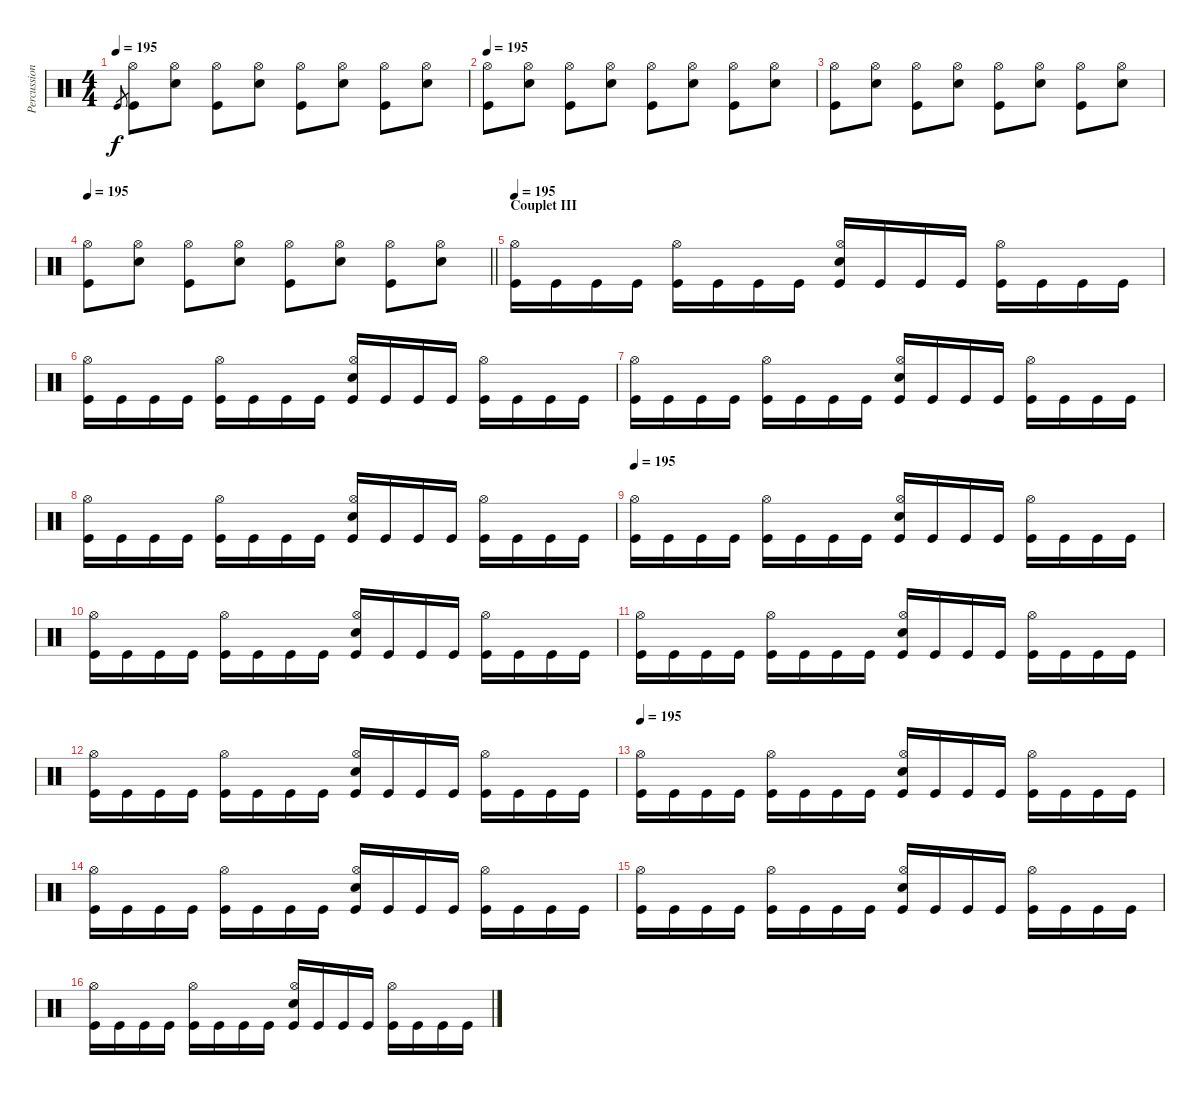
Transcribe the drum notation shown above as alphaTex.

\track ("Percussion" "Percussion") {instrument percussion}
\staff {score}
\articulation defaults
\ts (4 4)
\tempo 195
\clef neutral
\ks c "Kick (hit)".8{gr dy f}
("Hi-Hat (open)" "Kick (hit)").8 ("Hi-Hat (open)" "Electric Snare (hit)").8 ("Hi-Hat (open)" "Kick (hit)").8 ("Hi-Hat (open)" "Electric Snare (hit)").8 ("Hi-Hat (open)" "Kick (hit)").8 ("Hi-Hat (open)" "Electric Snare (hit)").8 ("Hi-Hat (open)" "Kick (hit)").8 ("Hi-Hat (open)" "Electric Snare (hit)").8 |
\tempo 195
("Hi-Hat (open)" "Kick (hit)").8 ("Hi-Hat (open)" "Electric Snare (hit)").8 ("Hi-Hat (open)" "Kick (hit)").8 ("Hi-Hat (open)" "Electric Snare (hit)").8 ("Hi-Hat (open)" "Kick (hit)").8 ("Hi-Hat (open)" "Electric Snare (hit)").8 ("Hi-Hat (open)" "Kick (hit)").8 ("Hi-Hat (open)" "Electric Snare (hit)").8 |
("Hi-Hat (open)" "Kick (hit)").8 ("Hi-Hat (open)" "Electric Snare (hit)").8 ("Hi-Hat (open)" "Kick (hit)").8 ("Hi-Hat (open)" "Electric Snare (hit)").8 ("Hi-Hat (open)" "Kick (hit)").8 ("Hi-Hat (open)" "Electric Snare (hit)").8 ("Hi-Hat (open)" "Kick (hit)").8 ("Hi-Hat (open)" "Electric Snare (hit)").8 |
\tempo 195
\barLineRight lightlight
("Hi-Hat (open)" "Kick (hit)").8 ("Hi-Hat (open)" "Electric Snare (hit)").8 ("Hi-Hat (open)" "Kick (hit)").8 ("Hi-Hat (open)" "Electric Snare (hit)").8 ("Hi-Hat (open)" "Kick (hit)").8 ("Hi-Hat (open)" "Electric Snare (hit)").8 ("Hi-Hat (open)" "Kick (hit)").8 ("Hi-Hat (open)" "Electric Snare (hit)").8 |
\section ("" "Couplet III")
\tempo 195
("Hi-Hat (open)" "Kick (hit)").16 "Kick (hit)".16 "Kick (hit)".16 "Kick (hit)".16 ("Hi-Hat (open)" "Kick (hit)").16 "Kick (hit)".16 "Kick (hit)".16 "Kick (hit)".16 ("Hi-Hat (open)" "Electric Snare (hit)" "Kick (hit)").16 "Kick (hit)".16 "Kick (hit)".16 "Kick (hit)".16 ("Hi-Hat (open)" "Kick (hit)").16 "Kick (hit)".16 "Kick (hit)".16 "Kick (hit)".16 |
("Hi-Hat (open)" "Kick (hit)").16 "Kick (hit)".16 "Kick (hit)".16 "Kick (hit)".16 ("Hi-Hat (open)" "Kick (hit)").16 "Kick (hit)".16 "Kick (hit)".16 "Kick (hit)".16 ("Hi-Hat (open)" "Electric Snare (hit)" "Kick (hit)").16 "Kick (hit)".16 "Kick (hit)".16 "Kick (hit)".16 ("Hi-Hat (open)" "Kick (hit)").16 "Kick (hit)".16 "Kick (hit)".16 "Kick (hit)".16 |
("Hi-Hat (open)" "Kick (hit)").16 "Kick (hit)".16 "Kick (hit)".16 "Kick (hit)".16 ("Hi-Hat (open)" "Kick (hit)").16 "Kick (hit)".16 "Kick (hit)".16 "Kick (hit)".16 ("Hi-Hat (open)" "Electric Snare (hit)" "Kick (hit)").16 "Kick (hit)".16 "Kick (hit)".16 "Kick (hit)".16 ("Hi-Hat (open)" "Kick (hit)").16 "Kick (hit)".16 "Kick (hit)".16 "Kick (hit)".16 |
("Hi-Hat (open)" "Kick (hit)").16 "Kick (hit)".16 "Kick (hit)".16 "Kick (hit)".16 ("Hi-Hat (open)" "Kick (hit)").16 "Kick (hit)".16 "Kick (hit)".16 "Kick (hit)".16 ("Hi-Hat (open)" "Electric Snare (hit)" "Kick (hit)").16 "Kick (hit)".16 "Kick (hit)".16 "Kick (hit)".16 ("Hi-Hat (open)" "Kick (hit)").16 "Kick (hit)".16 "Kick (hit)".16 "Kick (hit)".16 |
\tempo 195
("Hi-Hat (open)" "Kick (hit)").16 "Kick (hit)".16 "Kick (hit)".16 "Kick (hit)".16 ("Hi-Hat (open)" "Kick (hit)").16 "Kick (hit)".16 "Kick (hit)".16 "Kick (hit)".16 ("Hi-Hat (open)" "Electric Snare (hit)" "Kick (hit)").16 "Kick (hit)".16 "Kick (hit)".16 "Kick (hit)".16 ("Hi-Hat (open)" "Kick (hit)").16 "Kick (hit)".16 "Kick (hit)".16 "Kick (hit)".16 |
("Hi-Hat (open)" "Kick (hit)").16 "Kick (hit)".16 "Kick (hit)".16 "Kick (hit)".16 ("Hi-Hat (open)" "Kick (hit)").16 "Kick (hit)".16 "Kick (hit)".16 "Kick (hit)".16 ("Hi-Hat (open)" "Electric Snare (hit)" "Kick (hit)").16 "Kick (hit)".16 "Kick (hit)".16 "Kick (hit)".16 ("Hi-Hat (open)" "Kick (hit)").16 "Kick (hit)".16 "Kick (hit)".16 "Kick (hit)".16 |
("Hi-Hat (open)" "Kick (hit)").16 "Kick (hit)".16 "Kick (hit)".16 "Kick (hit)".16 ("Hi-Hat (open)" "Kick (hit)").16 "Kick (hit)".16 "Kick (hit)".16 "Kick (hit)".16 ("Hi-Hat (open)" "Electric Snare (hit)" "Kick (hit)").16 "Kick (hit)".16 "Kick (hit)".16 "Kick (hit)".16 ("Hi-Hat (open)" "Kick (hit)").16 "Kick (hit)".16 "Kick (hit)".16 "Kick (hit)".16 |
("Hi-Hat (open)" "Kick (hit)").16 "Kick (hit)".16 "Kick (hit)".16 "Kick (hit)".16 ("Hi-Hat (open)" "Kick (hit)").16 "Kick (hit)".16 "Kick (hit)".16 "Kick (hit)".16 ("Hi-Hat (open)" "Electric Snare (hit)" "Kick (hit)").16 "Kick (hit)".16 "Kick (hit)".16 "Kick (hit)".16 ("Hi-Hat (open)" "Kick (hit)").16 "Kick (hit)".16 "Kick (hit)".16 "Kick (hit)".16 |
\tempo 195
("Hi-Hat (open)" "Kick (hit)").16 "Kick (hit)".16 "Kick (hit)".16 "Kick (hit)".16 ("Hi-Hat (open)" "Kick (hit)").16 "Kick (hit)".16 "Kick (hit)".16 "Kick (hit)".16 ("Hi-Hat (open)" "Electric Snare (hit)" "Kick (hit)").16 "Kick (hit)".16 "Kick (hit)".16 "Kick (hit)".16 ("Hi-Hat (open)" "Kick (hit)").16 "Kick (hit)".16 "Kick (hit)".16 "Kick (hit)".16 |
("Hi-Hat (open)" "Kick (hit)").16 "Kick (hit)".16 "Kick (hit)".16 "Kick (hit)".16 ("Hi-Hat (open)" "Kick (hit)").16 "Kick (hit)".16 "Kick (hit)".16 "Kick (hit)".16 ("Hi-Hat (open)" "Electric Snare (hit)" "Kick (hit)").16 "Kick (hit)".16 "Kick (hit)".16 "Kick (hit)".16 ("Hi-Hat (open)" "Kick (hit)").16 "Kick (hit)".16 "Kick (hit)".16 "Kick (hit)".16 |
("Hi-Hat (open)" "Kick (hit)").16 "Kick (hit)".16 "Kick (hit)".16 "Kick (hit)".16 ("Hi-Hat (open)" "Kick (hit)").16 "Kick (hit)".16 "Kick (hit)".16 "Kick (hit)".16 ("Hi-Hat (open)" "Electric Snare (hit)" "Kick (hit)").16 "Kick (hit)".16 "Kick (hit)".16 "Kick (hit)".16 ("Hi-Hat (open)" "Kick (hit)").16 "Kick (hit)".16 "Kick (hit)".16 "Kick (hit)".16 |
("Hi-Hat (open)" "Kick (hit)").16 "Kick (hit)".16 "Kick (hit)".16 "Kick (hit)".16 ("Hi-Hat (open)" "Kick (hit)").16 "Kick (hit)".16 "Kick (hit)".16 "Kick (hit)".16 ("Hi-Hat (open)" "Electric Snare (hit)" "Kick (hit)").16 "Kick (hit)".16 "Kick (hit)".16 "Kick (hit)".16 ("Hi-Hat (open)" "Kick (hit)").16 "Kick (hit)".16 "Kick (hit)".16 "Kick (hit)".16
